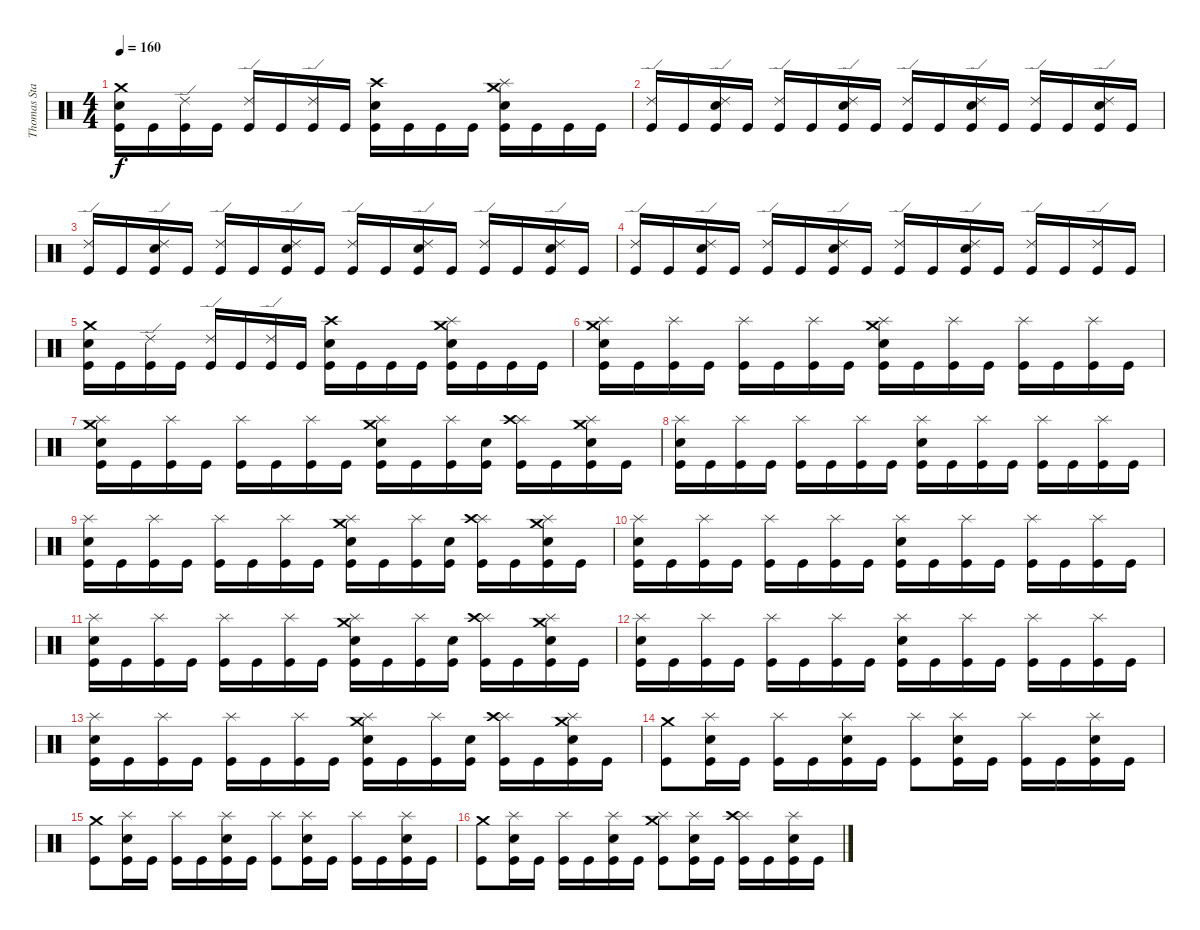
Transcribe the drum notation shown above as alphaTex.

\track ("Thomas Stauch" "Thomas Sta") {instrument percussion}
\staff {score}
\articulation defaults
\ts (4 4)
\tempo 160
\clef neutral
\ks c
("Crash medium (hit)" "Electric Snare (hit)" "Kick (hit)").16{dy f} "Kick (hit)".16 ("Ride (edge) 2" "Kick (hit)").16 "Kick (hit)".16 ("Ride (edge) 2" "Kick (hit)").16 "Kick (hit)".16 ("Ride (edge) 2" "Kick (hit)").16 "Kick (hit)".16 ("Crash high (hit)" "Electric Snare (hit)" "Kick (hit)").16 "Kick (hit)".16 "Kick (hit)".16 "Kick (hit)".16 ("Crash medium (hit)" "Splash (hit)" "Electric Snare (hit)" "Kick (hit)").16 "Kick (hit)".16 "Kick (hit)".16 "Kick (hit)".16 |
("Ride (edge) 2" "Kick (hit)").16 "Kick (hit)".16 ("Ride (edge) 2" "Electric Snare (hit)" "Kick (hit)").16 "Kick (hit)".16 ("Ride (edge) 2" "Kick (hit)").16 "Kick (hit)".16 ("Ride (edge) 2" "Electric Snare (hit)" "Kick (hit)").16 "Kick (hit)".16 ("Ride (edge) 2" "Kick (hit)").16 "Kick (hit)".16 ("Ride (edge) 2" "Electric Snare (hit)" "Kick (hit)").16 "Kick (hit)".16 ("Ride (edge) 2" "Kick (hit)").16 "Kick (hit)".16 ("Ride (edge) 2" "Electric Snare (hit)" "Kick (hit)").16 "Kick (hit)".16 |
("Ride (edge) 2" "Kick (hit)").16 "Kick (hit)".16 ("Ride (edge) 2" "Electric Snare (hit)" "Kick (hit)").16 "Kick (hit)".16 ("Ride (edge) 2" "Kick (hit)").16 "Kick (hit)".16 ("Ride (edge) 2" "Electric Snare (hit)" "Kick (hit)").16 "Kick (hit)".16 ("Ride (edge) 2" "Kick (hit)").16 "Kick (hit)".16 ("Ride (edge) 2" "Electric Snare (hit)" "Kick (hit)").16 "Kick (hit)".16 ("Ride (edge) 2" "Kick (hit)").16 "Kick (hit)".16 ("Ride (edge) 2" "Electric Snare (hit)" "Kick (hit)").16 "Kick (hit)".16 |
("Ride (edge) 2" "Kick (hit)").16 "Kick (hit)".16 ("Ride (edge) 2" "Electric Snare (hit)" "Kick (hit)").16 "Kick (hit)".16 ("Ride (edge) 2" "Kick (hit)").16 "Kick (hit)".16 ("Ride (edge) 2" "Electric Snare (hit)" "Kick (hit)").16 "Kick (hit)".16 ("Ride (edge) 2" "Kick (hit)").16 "Kick (hit)".16 ("Ride (edge) 2" "Electric Snare (hit)" "Kick (hit)").16 "Kick (hit)".16 ("Ride (edge) 2" "Kick (hit)").16 "Kick (hit)".16 ("Ride (edge) 2" "Kick (hit)").16 "Kick (hit)".16 |
("Crash medium (hit)" "Electric Snare (hit)" "Kick (hit)").16 "Kick (hit)".16 ("Ride (edge) 2" "Kick (hit)").16 "Kick (hit)".16 ("Ride (edge) 2" "Kick (hit)").16 "Kick (hit)".16 ("Ride (edge) 2" "Kick (hit)").16 "Kick (hit)".16 ("Crash high (hit)" "Electric Snare (hit)" "Kick (hit)").16 "Kick (hit)".16 "Kick (hit)".16 "Kick (hit)".16 ("Crash medium (hit)" "Splash (hit)" "Electric Snare (hit)" "Kick (hit)").16 "Kick (hit)".16 "Kick (hit)".16 "Kick (hit)".16 |
("Crash medium (hit)" "Splash (hit)" "Electric Snare (hit)" "Kick (hit)").16 "Kick (hit)".16 ("Splash (hit)" "Kick (hit)").16 "Kick (hit)".16 ("Splash (hit)" "Kick (hit)").16 "Kick (hit)".16 ("Splash (hit)" "Kick (hit)").16 "Kick (hit)".16 ("Crash medium (hit)" "Splash (hit)" "Electric Snare (hit)" "Kick (hit)").16 "Kick (hit)".16 ("Splash (hit)" "Kick (hit)").16 "Kick (hit)".16 ("Splash (hit)" "Kick (hit)").16 "Kick (hit)".16 ("Splash (hit)" "Kick (hit)").16 "Kick (hit)".16 |
("Crash medium (hit)" "Splash (hit)" "Electric Snare (hit)" "Kick (hit)").16 "Kick (hit)".16 ("Splash (hit)" "Kick (hit)").16 "Kick (hit)".16 ("Splash (hit)" "Kick (hit)").16 "Kick (hit)".16 ("Splash (hit)" "Kick (hit)").16 "Kick (hit)".16 ("Crash medium (hit)" "Splash (hit)" "Electric Snare (hit)" "Kick (hit)").16 "Kick (hit)".16 ("Splash (hit)" "Kick (hit)").16 ("Electric Snare (hit)" "Kick (hit)").16 ("Splash (hit)" "Crash high (hit)" "Kick (hit)").16 "Kick (hit)".16 ("Crash medium (hit)" "Splash (hit)" "Electric Snare (hit)" "Kick (hit)").16 "Kick (hit)".16 |
("Splash (hit)" "Electric Snare (hit)" "Kick (hit)").16 "Kick (hit)".16 ("Splash (hit)" "Kick (hit)").16 "Kick (hit)".16 ("Splash (hit)" "Kick (hit)").16 "Kick (hit)".16 ("Splash (hit)" "Kick (hit)").16 "Kick (hit)".16 ("Splash (hit)" "Electric Snare (hit)" "Kick (hit)").16 "Kick (hit)".16 ("Splash (hit)" "Kick (hit)").16 "Kick (hit)".16 ("Splash (hit)" "Kick (hit)").16 "Kick (hit)".16 ("Splash (hit)" "Kick (hit)").16 "Kick (hit)".16 |
("Splash (hit)" "Electric Snare (hit)" "Kick (hit)").16 "Kick (hit)".16 ("Splash (hit)" "Kick (hit)").16 "Kick (hit)".16 ("Splash (hit)" "Kick (hit)").16 "Kick (hit)".16 ("Splash (hit)" "Kick (hit)").16 "Kick (hit)".16 ("Crash medium (hit)" "Splash (hit)" "Electric Snare (hit)" "Kick (hit)").16 "Kick (hit)".16 ("Splash (hit)" "Kick (hit)").16 ("Electric Snare (hit)" "Kick (hit)").16 ("Splash (hit)" "Crash high (hit)" "Kick (hit)").16 "Kick (hit)".16 ("Crash medium (hit)" "Splash (hit)" "Electric Snare (hit)" "Kick (hit)").16 "Kick (hit)".16 |
("Splash (hit)" "Electric Snare (hit)" "Kick (hit)").16 "Kick (hit)".16 ("Splash (hit)" "Kick (hit)").16 "Kick (hit)".16 ("Splash (hit)" "Kick (hit)").16 "Kick (hit)".16 ("Splash (hit)" "Kick (hit)").16 "Kick (hit)".16 ("Splash (hit)" "Electric Snare (hit)" "Kick (hit)").16 "Kick (hit)".16 ("Splash (hit)" "Kick (hit)").16 "Kick (hit)".16 ("Splash (hit)" "Kick (hit)").16 "Kick (hit)".16 ("Splash (hit)" "Kick (hit)").16 "Kick (hit)".16 |
("Splash (hit)" "Electric Snare (hit)" "Kick (hit)").16 "Kick (hit)".16 ("Splash (hit)" "Kick (hit)").16 "Kick (hit)".16 ("Splash (hit)" "Kick (hit)").16 "Kick (hit)".16 ("Splash (hit)" "Kick (hit)").16 "Kick (hit)".16 ("Crash medium (hit)" "Splash (hit)" "Electric Snare (hit)" "Kick (hit)").16 "Kick (hit)".16 ("Splash (hit)" "Kick (hit)").16 ("Electric Snare (hit)" "Kick (hit)").16 ("Splash (hit)" "Crash high (hit)" "Kick (hit)").16 "Kick (hit)".16 ("Crash medium (hit)" "Splash (hit)" "Electric Snare (hit)" "Kick (hit)").16 "Kick (hit)".16 |
("Splash (hit)" "Electric Snare (hit)" "Kick (hit)").16 "Kick (hit)".16 ("Splash (hit)" "Kick (hit)").16 "Kick (hit)".16 ("Splash (hit)" "Kick (hit)").16 "Kick (hit)".16 ("Splash (hit)" "Kick (hit)").16 "Kick (hit)".16 ("Splash (hit)" "Electric Snare (hit)" "Kick (hit)").16 "Kick (hit)".16 ("Splash (hit)" "Kick (hit)").16 "Kick (hit)".16 ("Splash (hit)" "Kick (hit)").16 "Kick (hit)".16 ("Splash (hit)" "Kick (hit)").16 "Kick (hit)".16 |
("Splash (hit)" "Electric Snare (hit)" "Kick (hit)").16 "Kick (hit)".16 ("Splash (hit)" "Kick (hit)").16 "Kick (hit)".16 ("Splash (hit)" "Kick (hit)").16 "Kick (hit)".16 ("Splash (hit)" "Kick (hit)").16 "Kick (hit)".16 ("Crash medium (hit)" "Splash (hit)" "Electric Snare (hit)" "Kick (hit)").16 "Kick (hit)".16 ("Splash (hit)" "Kick (hit)").16 ("Electric Snare (hit)" "Kick (hit)").16 ("Splash (hit)" "Crash high (hit)" "Kick (hit)").16 "Kick (hit)".16 ("Crash medium (hit)" "Splash (hit)" "Electric Snare (hit)" "Kick (hit)").16 "Kick (hit)".16 |
("Crash medium (hit)" "Kick (hit)").8 ("Splash (hit)" "Electric Snare (hit)" "Kick (hit)").16 "Kick (hit)".16 ("Splash (hit)" "Kick (hit)").16 "Kick (hit)".16 ("Splash (hit)" "Electric Snare (hit)" "Kick (hit)").16 "Kick (hit)".16 ("Splash (hit)" "Kick (hit)").8 ("Splash (hit)" "Electric Snare (hit)" "Kick (hit)").16 "Kick (hit)".16 ("Splash (hit)" "Kick (hit)").16 "Kick (hit)".16 ("Splash (hit)" "Electric Snare (hit)" "Kick (hit)").16 "Kick (hit)".16 |
("Crash medium (hit)" "Kick (hit)").8 ("Splash (hit)" "Electric Snare (hit)" "Kick (hit)").16 "Kick (hit)".16 ("Splash (hit)" "Kick (hit)").16 "Kick (hit)".16 ("Splash (hit)" "Electric Snare (hit)" "Kick (hit)").16 "Kick (hit)".16 ("Splash (hit)" "Kick (hit)").8 ("Splash (hit)" "Electric Snare (hit)" "Kick (hit)").16 "Kick (hit)".16 ("Splash (hit)" "Kick (hit)").16 "Kick (hit)".16 ("Splash (hit)" "Electric Snare (hit)" "Kick (hit)").16 "Kick (hit)".16 |
("Crash medium (hit)" "Kick (hit)").8 ("Splash (hit)" "Electric Snare (hit)" "Kick (hit)").16 "Kick (hit)".16 ("Splash (hit)" "Kick (hit)").16 "Kick (hit)".16 ("Splash (hit)" "Electric Snare (hit)" "Kick (hit)").16 "Kick (hit)".16 ("Crash medium (hit)" "Splash (hit)" "Kick (hit)").8 ("Splash (hit)" "Electric Snare (hit)" "Kick (hit)").16 "Kick (hit)".16 ("Splash (hit)" "Crash high (hit)" "Kick (hit)").16 "Kick (hit)".16 ("Splash (hit)" "Electric Snare (hit)" "Kick (hit)").16 "Kick (hit)".16
